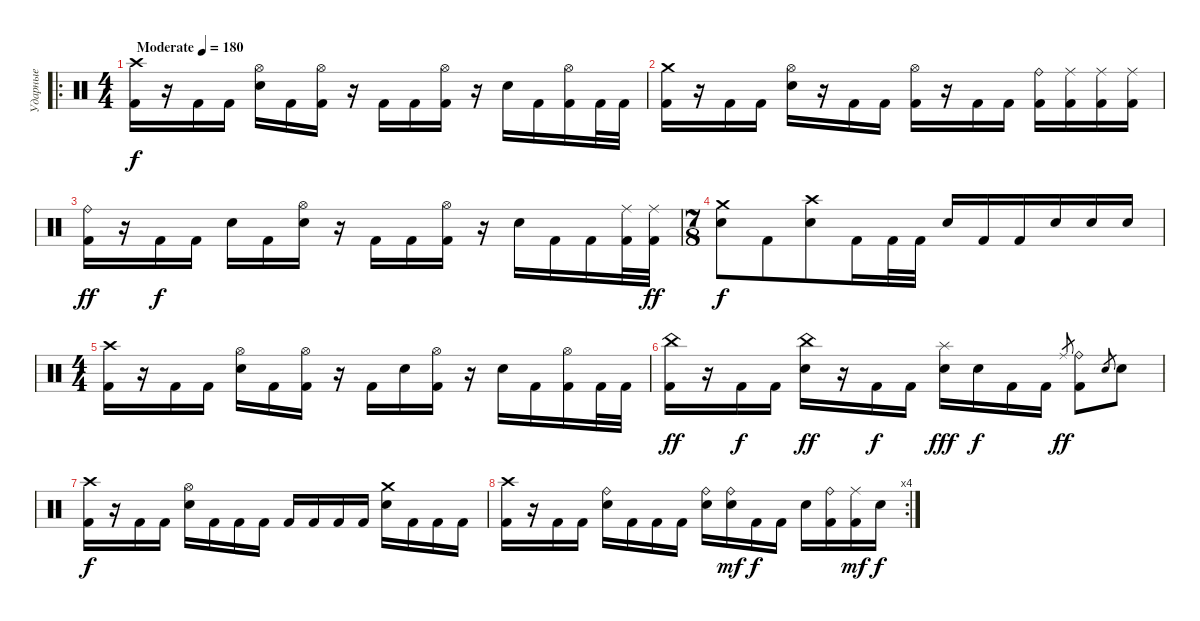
\track ("Ударные" "Ударные") {instrument percussion}
\staff {score}
\articulation defaults
\ro
\ts (4 4)
\tempo (180 "Moderate")
\clef neutral
\ks c
("Crash high (hit)" "Kick (hit) 2").16{dy f} r.16 "Kick (hit) 2".16 "Kick (hit) 2".16 ("Hi-Hat (open)" "Electric Snare (hit)").16 "Kick (hit) 2".16 ("Hi-Hat (open)" "Kick (hit) 2").16 r.16 "Kick (hit) 2".16 "Kick (hit) 2".16 ("Hi-Hat (open)" "Kick (hit) 2").16 r.16 "Electric Snare (hit)".16 "Kick (hit) 2".16 ("Hi-Hat (open)" "Kick (hit) 2").16 "Kick (hit) 2".32 "Kick (hit) 2".32 |
("Crash medium (hit)" "Kick (hit) 2").16 r.16 "Kick (hit) 2".16 "Kick (hit) 2".16 ("Hi-Hat (open)" "Electric Snare (hit)").16 r.16 "Kick (hit) 2".16 "Kick (hit) 2".16 ("Hi-Hat (open)" "Kick (hit) 2").16 r.16 "Kick (hit) 2".16 "Kick (hit) 2".16 ("Ride (bell)" "Kick (hit) 2").16 ("Ride (middle)" "Kick (hit) 2").16 ("Ride (middle)" "Kick (hit) 2").16 ("Ride (middle)" "Kick (hit) 2").16 |
("Ride (bell)" "Kick (hit) 2").16{dy ff} r.16 "Kick (hit) 2".16{dy f} "Kick (hit) 2".16 "Electric Snare (hit)".16 "Kick (hit) 2".16 ("Hi-Hat (open)" "Electric Snare (hit)").16 r.16 "Kick (hit) 2".16 "Kick (hit) 2".16 ("Hi-Hat (open)" "Kick (hit) 2").16 r.16 "Electric Snare (hit)".16 "Kick (hit) 2".16 "Kick (hit) 2".16 ("Ride (middle)" "Kick (hit) 2").32 ("Ride (middle)" "Kick (hit) 2").32{dy ff} |
\ts (7 8)
("Crash medium (hit)" "Electric Snare (hit)").8{dy f} "Kick (hit) 2".8 ("Crash high (hit)" "Electric Snare (hit)").8 "Kick (hit) 2".16 "Kick (hit) 2".32 "Kick (hit) 2".32 "Electric Snare (hit)".16 "Kick (hit) 2".16 "Kick (hit) 2".16 "Electric Snare (hit)".16 "Electric Snare (hit)".16 "Electric Snare (hit)".16 |
\ts (4 4)
("Crash high (hit)" "Kick (hit) 2").16 r.16 "Kick (hit) 2".16 "Kick (hit) 2".16 ("Hi-Hat (open)" "Electric Snare (hit)").16 "Kick (hit) 2".16 ("Hi-Hat (open)" "Kick (hit) 2").16 r.16 "Kick (hit) 2".16 "Snare (hit)".16 ("Hi-Hat (open)" "Kick (hit) 2").16 r.16 "Electric Snare (hit)".16 "Kick (hit) 2".16 ("Hi-Hat (open)" "Kick (hit) 2").16 "Kick (hit) 2".32 "Kick (hit) 2".32 |
("China (hit)" "Kick (hit) 2").16{dy ff} r.16 "Kick (hit) 2".16{dy f} "Kick (hit) 2".16 ("China (hit)" "Electric Snare (hit)").16{dy ff} r.16 "Kick (hit) 2".16{dy f} "Kick (hit) 2".16 ("Splash (hit)" "Electric Snare (hit)").16{dy fff} "Electric Snare (hit)".16{dy f} "Kick (hit) 2".16 "Kick (hit) 2".16 "Ride (middle)".8{gr dy ff} ("Ride (bell)" "Kick (hit) 2").8 "Electric Snare (hit)".8{gr} "Electric Snare (hit)".8 |
("Crash high (hit)" "Kick (hit) 2").16{dy f} r.16 "Kick (hit) 2".16 "Kick (hit) 2".16 ("Hi-Hat (open)" "Electric Snare (hit)").16 "Kick (hit) 2".16 "Kick (hit) 2".16 "Kick (hit) 2".16 "Kick (hit) 2".16 "Kick (hit) 2".16 "Kick (hit) 2".16 "Kick (hit) 2".16 ("Crash medium (hit)" "Electric Snare (hit)").16 "Kick (hit) 2".16 "Kick (hit) 2".16 "Kick (hit) 2".16 |
\rc 4
("Crash high (hit)" "Kick (hit) 2").16 r.16 "Kick (hit) 2".16 "Kick (hit) 2".16 ("Ride (bell)" "Electric Snare (hit)").16 "Kick (hit) 2".16 "Kick (hit) 2".16 "Kick (hit) 2".16 ("Ride (bell)" "Electric Snare (hit)").16 ("Ride (bell)" "Electric Snare (hit)").16{dy mf} "Kick (hit) 2".16{dy f} "Kick (hit) 2".16 "Electric Snare (hit)".16 ("Ride (bell)" "Kick (hit) 2").16 ("Ride (middle)" "Kick (hit) 2").16{dy mf} "Electric Snare (hit)".16{dy f}
